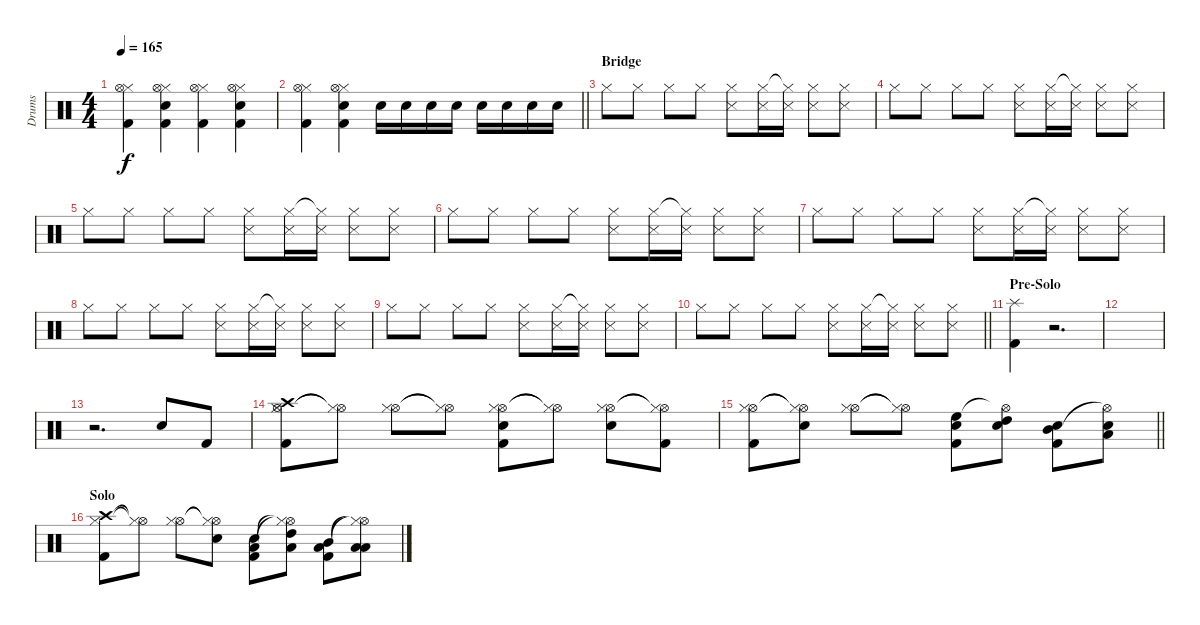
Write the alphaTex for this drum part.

\track ("Drums" "Drums") {instrument percussion}
\staff {score}
\articulation defaults
\ts (4 4)
\tempo 165
\clef neutral
\ks c
("Hi-Hat (closed)" "Hi-Hat (open)" "Kick (hit) 2").4{dy f} ("Hi-Hat (closed)" "Hi-Hat (open)" "Snare (hit) 2" "Kick (hit) 2").4 ("Hi-Hat (closed)" "Hi-Hat (open)" "Kick (hit) 2").4 ("Hi-Hat (closed)" "Hi-Hat (open)" "Snare (hit) 2" "Kick (hit) 2").4 |
\barLineRight lightlight
("Hi-Hat (closed)" "Hi-Hat (open)" "Kick (hit) 2").4 ("Hi-Hat (closed)" "Hi-Hat (open)" "Snare (hit) 2" "Kick (hit) 2").4 "Snare (hit) 2".16 "Snare (hit) 2".16 "Snare (hit) 2".16 "Snare (hit) 2".16 "Snare (hit) 2".16 "Snare (hit) 2".16 "Snare (hit) 2".16 "Snare (hit) 2".16 |
\section ("" "Bridge")
"Hi-Hat (closed)".8 "Hi-Hat (closed)".8 "Hi-Hat (closed)".8 "Hi-Hat (closed)".8 ("Hi-Hat (closed)" "Snare (side stick) 3").8 ("Hi-Hat (closed)" "Snare (side stick) 3").16 ("Hi-Hat (closed)"{t} "Snare (side stick) 3").16 ("Hi-Hat (closed)" "Snare (side stick) 3").8 ("Hi-Hat (closed)" "Snare (side stick) 3").8 |
"Hi-Hat (closed)".8 "Hi-Hat (closed)".8 "Hi-Hat (closed)".8 "Hi-Hat (closed)".8 ("Hi-Hat (closed)" "Snare (side stick) 3").8 ("Hi-Hat (closed)" "Snare (side stick) 3").16 ("Hi-Hat (closed)"{t} "Snare (side stick) 3").16 ("Hi-Hat (closed)" "Snare (side stick) 3").8 ("Hi-Hat (closed)" "Snare (side stick) 3").8 |
"Hi-Hat (closed)".8 "Hi-Hat (closed)".8 "Hi-Hat (closed)".8 "Hi-Hat (closed)".8 ("Hi-Hat (closed)" "Snare (side stick) 3").8 ("Hi-Hat (closed)" "Snare (side stick) 3").16 ("Hi-Hat (closed)"{t} "Snare (side stick) 3").16 ("Hi-Hat (closed)" "Snare (side stick) 3").8 ("Hi-Hat (closed)" "Snare (side stick) 3").8 |
"Hi-Hat (closed)".8 "Hi-Hat (closed)".8 "Hi-Hat (closed)".8 "Hi-Hat (closed)".8 ("Hi-Hat (closed)" "Snare (side stick) 3").8 ("Hi-Hat (closed)" "Snare (side stick) 3").16 ("Hi-Hat (closed)"{t} "Snare (side stick) 3").16 ("Hi-Hat (closed)" "Snare (side stick) 3").8 ("Hi-Hat (closed)" "Snare (side stick) 3").8 |
"Hi-Hat (closed)".8 "Hi-Hat (closed)".8 "Hi-Hat (closed)".8 "Hi-Hat (closed)".8 ("Hi-Hat (closed)" "Snare (side stick) 3").8 ("Hi-Hat (closed)" "Snare (side stick) 3").16 ("Hi-Hat (closed)"{t} "Snare (side stick) 3").16 ("Hi-Hat (closed)" "Snare (side stick) 3").8 ("Hi-Hat (closed)" "Snare (side stick) 3").8 |
"Hi-Hat (closed)".8 "Hi-Hat (closed)".8 "Hi-Hat (closed)".8 "Hi-Hat (closed)".8 ("Hi-Hat (closed)" "Snare (side stick) 3").8 ("Hi-Hat (closed)" "Snare (side stick) 3").16 ("Hi-Hat (closed)"{t} "Snare (side stick) 3").16 ("Hi-Hat (closed)" "Snare (side stick) 3").8 ("Hi-Hat (closed)" "Snare (side stick) 3").8 |
"Hi-Hat (closed)".8 "Hi-Hat (closed)".8 "Hi-Hat (closed)".8 "Hi-Hat (closed)".8 ("Hi-Hat (closed)" "Snare (side stick) 3").8 ("Hi-Hat (closed)" "Snare (side stick) 3").16 ("Hi-Hat (closed)"{t} "Snare (side stick) 3").16 ("Hi-Hat (closed)" "Snare (side stick) 3").8 ("Hi-Hat (closed)" "Snare (side stick) 3").8 |
\barLineRight lightlight "Hi-Hat (closed)".8 "Hi-Hat (closed)".8 "Hi-Hat (closed)".8 "Hi-Hat (closed)".8
("Hi-Hat (closed)" "Snare (side stick) 3").8 ("Hi-Hat (closed)" "Snare (side stick) 3").16 ("Hi-Hat (closed)"{t} "Snare (side stick) 3").16 ("Hi-Hat (closed)" "Snare (side stick) 3").8 ("Hi-Hat (closed)" "Snare (side stick) 3").8 |
\section ("" "Pre-Solo")
("Splash (hit)" "Kick (hit) 2").4 r.2{d} |
|
r.2{d} "Snare (hit) 2".8 "Kick (hit) 2".8 |
("Hi-Hat (open)" "Hi-Hat (closed)" "Crash high (hit)" "Kick (hit) 2").8{volume 15} ("Hi-Hat (open)"{t} "Hi-Hat (closed)"{t}).8 ("Hi-Hat (open)" "Hi-Hat (closed)").8 ("Hi-Hat (open)"{t} "Hi-Hat (closed)"{t}).8 ("Hi-Hat (open)" "Hi-Hat (closed)" "Snare (hit) 2" "Kick (hit) 2").8 ("Hi-Hat (open)"{t} "Hi-Hat (closed)"{t}).8 ("Hi-Hat (open)" "Hi-Hat (closed)" "Snare (hit) 2").8 ("Hi-Hat (open)"{t} "Hi-Hat (closed)"{t} "Kick (hit) 2").8 |
\barLineRight lightlight
("Hi-Hat (open)" "Hi-Hat (closed)" "Kick (hit) 2").8 ("Hi-Hat (open)"{t} "Hi-Hat (closed)"{t} "Snare (hit) 2").8 ("Hi-Hat (open)" "Hi-Hat (closed)").8 ("Hi-Hat (open)"{t} "Hi-Hat (closed)"{t}).8 ("High Floor Tom (hit)" "Snare (hit) 2" "Kick (hit) 2").8 ("Hi-Hat (open)"{t} "High Tom (hit)" "Snare (hit) 2").8 ("Mid Tom (hit)" "Snare (hit) 2" "Kick (hit) 2").8 ("Hi-Hat (open)"{t} "Low Tom (hit)" "Snare (hit) 2").8 |
\section ("" "Solo")
("Crash high (hit)" "Hi-Hat (closed)" "Kick (hit) 2").8 ("Hi-Hat (open)"{t} "Hi-Hat (closed)"{t}).8 ("Hi-Hat (open)" "Hi-Hat (closed)").8 ("Hi-Hat (open)"{t} "Hi-Hat (closed)"{t} "Snare (hit) 2").8 ("Snare (hit) 2" "Low Floor Tom (hit)" "Kick (hit) 2").8 ("Hi-Hat (open)"{t} "Hi-Hat (closed)"{t} "High Tom (hit)" "Low Floor Tom (hit)").8 ("Mid Tom (hit)" "Low Floor Tom (hit)" "Kick (hit) 2").8 ("Hi-Hat (open)"{t} "Hi-Hat (closed)"{t} "Low Tom (hit)" "Low Floor Tom (hit)").8
